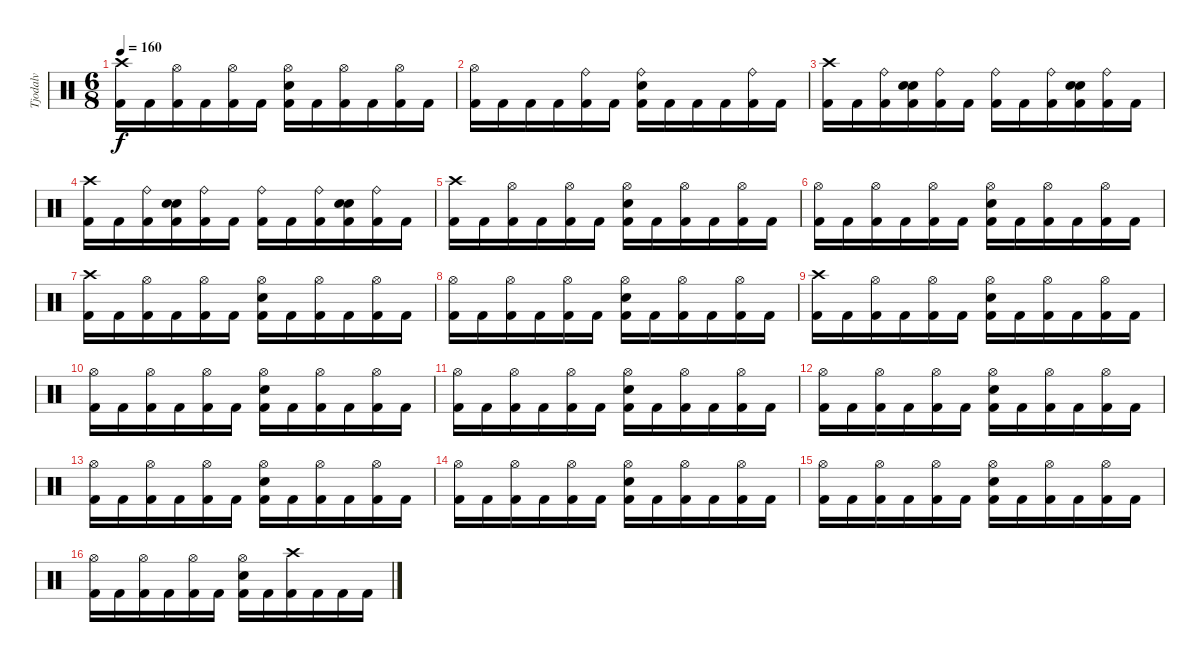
\track ("Tjodalv" "Tjodalv") {instrument percussion}
\staff {score}
\articulation defaults
\ts (6 8)
\tempo 160
\clef neutral
\ks c
("Crash high (hit)" "Kick (hit) 2").16{dy f} "Kick (hit) 2".16 ("Hi-Hat (open)" "Kick (hit) 2").16 "Kick (hit) 2".16 ("Hi-Hat (open)" "Kick (hit) 2").16 "Kick (hit) 2".16 ("Hi-Hat (open)" "Snare (hit) 2" "Kick (hit) 2").16 "Kick (hit) 2".16 ("Hi-Hat (open)" "Kick (hit) 2").16 "Kick (hit) 2".16 ("Hi-Hat (open)" "Kick (hit) 2").16 "Kick (hit) 2".16 |
("Hi-Hat (open)" "Kick (hit) 2").16 "Kick (hit) 2".16 "Kick (hit) 2".16 "Kick (hit) 2".16 ("Ride (bell)" "Kick (hit) 2").16 "Kick (hit) 2".16 ("Ride (bell)" "Snare (hit) 2" "Kick (hit) 2").16 "Kick (hit) 2".16 "Kick (hit) 2".16 "Kick (hit) 2".16 ("Ride (bell)" "Kick (hit) 2").16 "Kick (hit) 2".16 |
("Crash high (hit)" "Kick (hit) 2").16 "Kick (hit) 2".16 ("Ride (bell)" "Kick (hit) 2").16 ("Snare (hit) 2" "Snare (hit) 2" "Kick (hit) 2").16 ("Ride (bell)" "Kick (hit) 2").16 "Kick (hit) 2".16 ("Ride (bell)" "Kick (hit) 2").16 "Kick (hit) 2".16 ("Ride (bell)" "Kick (hit) 2").16 ("Snare (hit) 2" "Snare (hit) 2" "Kick (hit) 2").16 ("Ride (bell)" "Kick (hit) 2").16 "Kick (hit) 2".16 |
("Crash high (hit)" "Kick (hit) 2").16 "Kick (hit) 2".16 ("Ride (bell)" "Kick (hit) 2").16 ("Snare (hit) 2" "Snare (hit) 2" "Kick (hit) 2").16 ("Ride (bell)" "Kick (hit) 2").16 "Kick (hit) 2".16 ("Ride (bell)" "Kick (hit) 2").16 "Kick (hit) 2".16 ("Ride (bell)" "Kick (hit) 2").16 ("Snare (hit) 2" "Snare (hit) 2" "Kick (hit) 2").16 ("Ride (bell)" "Kick (hit) 2").16 "Kick (hit) 2".16 |
("Crash high (hit)" "Kick (hit) 2").16 "Kick (hit) 2".16 ("Hi-Hat (open)" "Kick (hit) 2").16 "Kick (hit) 2".16 ("Hi-Hat (open)" "Kick (hit) 2").16 "Kick (hit) 2".16 ("Hi-Hat (open)" "Snare (hit) 2" "Kick (hit) 2").16 "Kick (hit) 2".16 ("Hi-Hat (open)" "Kick (hit) 2").16 "Kick (hit) 2".16 ("Hi-Hat (open)" "Kick (hit) 2").16 "Kick (hit) 2".16 |
("Hi-Hat (open)" "Kick (hit) 2").16 "Kick (hit) 2".16 ("Hi-Hat (open)" "Kick (hit) 2").16 "Kick (hit) 2".16 ("Hi-Hat (open)" "Kick (hit) 2").16 "Kick (hit) 2".16 ("Hi-Hat (open)" "Snare (hit) 2" "Kick (hit) 2").16 "Kick (hit) 2".16 ("Hi-Hat (open)" "Kick (hit) 2").16 "Kick (hit) 2".16 ("Hi-Hat (open)" "Kick (hit) 2").16 "Kick (hit) 2".16 |
("Crash high (hit)" "Kick (hit) 2").16 "Kick (hit) 2".16 ("Hi-Hat (open)" "Kick (hit) 2").16 "Kick (hit) 2".16 ("Hi-Hat (open)" "Kick (hit) 2").16 "Kick (hit) 2".16 ("Hi-Hat (open)" "Snare (hit) 2" "Kick (hit) 2").16 "Kick (hit) 2".16 ("Hi-Hat (open)" "Kick (hit) 2").16 "Kick (hit) 2".16 ("Hi-Hat (open)" "Kick (hit) 2").16 "Kick (hit) 2".16 |
("Hi-Hat (open)" "Kick (hit) 2").16 "Kick (hit) 2".16 ("Hi-Hat (open)" "Kick (hit) 2").16 "Kick (hit) 2".16 ("Hi-Hat (open)" "Kick (hit) 2").16 "Kick (hit) 2".16 ("Hi-Hat (open)" "Snare (hit) 2" "Kick (hit) 2").16 "Kick (hit) 2".16 ("Hi-Hat (open)" "Kick (hit) 2").16 "Kick (hit) 2".16 ("Hi-Hat (open)" "Kick (hit) 2").16 "Kick (hit) 2".16 |
("Crash high (hit)" "Kick (hit) 2").16 "Kick (hit) 2".16 ("Hi-Hat (open)" "Kick (hit) 2").16 "Kick (hit) 2".16 ("Hi-Hat (open)" "Kick (hit) 2").16 "Kick (hit) 2".16 ("Hi-Hat (open)" "Snare (hit) 2" "Kick (hit) 2").16 "Kick (hit) 2".16 ("Hi-Hat (open)" "Kick (hit) 2").16 "Kick (hit) 2".16 ("Hi-Hat (open)" "Kick (hit) 2").16 "Kick (hit) 2".16 |
("Hi-Hat (open)" "Kick (hit) 2").16 "Kick (hit) 2".16 ("Hi-Hat (open)" "Kick (hit) 2").16 "Kick (hit) 2".16 ("Hi-Hat (open)" "Kick (hit) 2").16 "Kick (hit) 2".16 ("Hi-Hat (open)" "Snare (hit) 2" "Kick (hit) 2").16 "Kick (hit) 2".16 ("Hi-Hat (open)" "Kick (hit) 2").16 "Kick (hit) 2".16 ("Hi-Hat (open)" "Kick (hit) 2").16 "Kick (hit) 2".16 |
("Hi-Hat (open)" "Kick (hit) 2").16 "Kick (hit) 2".16 ("Hi-Hat (open)" "Kick (hit) 2").16 "Kick (hit) 2".16 ("Hi-Hat (open)" "Kick (hit) 2").16 "Kick (hit) 2".16 ("Hi-Hat (open)" "Snare (hit) 2" "Kick (hit) 2").16 "Kick (hit) 2".16 ("Hi-Hat (open)" "Kick (hit) 2").16 "Kick (hit) 2".16 ("Hi-Hat (open)" "Kick (hit) 2").16 "Kick (hit) 2".16 |
("Hi-Hat (open)" "Kick (hit) 2").16 "Kick (hit) 2".16 ("Hi-Hat (open)" "Kick (hit) 2").16 "Kick (hit) 2".16 ("Hi-Hat (open)" "Kick (hit) 2").16 "Kick (hit) 2".16 ("Hi-Hat (open)" "Snare (hit) 2" "Kick (hit) 2").16 "Kick (hit) 2".16 ("Hi-Hat (open)" "Kick (hit) 2").16 "Kick (hit) 2".16 ("Hi-Hat (open)" "Kick (hit) 2").16 "Kick (hit) 2".16 |
("Hi-Hat (open)" "Kick (hit) 2").16 "Kick (hit) 2".16 ("Hi-Hat (open)" "Kick (hit) 2").16 "Kick (hit) 2".16 ("Hi-Hat (open)" "Kick (hit) 2").16 "Kick (hit) 2".16 ("Hi-Hat (open)" "Snare (hit) 2" "Kick (hit) 2").16 "Kick (hit) 2".16 ("Hi-Hat (open)" "Kick (hit) 2").16 "Kick (hit) 2".16 ("Hi-Hat (open)" "Kick (hit) 2").16 "Kick (hit) 2".16 |
("Hi-Hat (open)" "Kick (hit) 2").16 "Kick (hit) 2".16 ("Hi-Hat (open)" "Kick (hit) 2").16 "Kick (hit) 2".16 ("Hi-Hat (open)" "Kick (hit) 2").16 "Kick (hit) 2".16 ("Hi-Hat (open)" "Snare (hit) 2" "Kick (hit) 2").16 "Kick (hit) 2".16 ("Hi-Hat (open)" "Kick (hit) 2").16 "Kick (hit) 2".16 ("Hi-Hat (open)" "Kick (hit) 2").16 "Kick (hit) 2".16 |
("Hi-Hat (open)" "Kick (hit) 2").16 "Kick (hit) 2".16 ("Hi-Hat (open)" "Kick (hit) 2").16 "Kick (hit) 2".16 ("Hi-Hat (open)" "Kick (hit) 2").16 "Kick (hit) 2".16 ("Hi-Hat (open)" "Snare (hit) 2" "Kick (hit) 2").16 "Kick (hit) 2".16 ("Hi-Hat (open)" "Kick (hit) 2").16 "Kick (hit) 2".16 ("Hi-Hat (open)" "Kick (hit) 2").16 "Kick (hit) 2".16 |
("Hi-Hat (open)" "Kick (hit) 2").16 "Kick (hit) 2".16 ("Hi-Hat (open)" "Kick (hit) 2").16 "Kick (hit) 2".16 ("Hi-Hat (open)" "Kick (hit) 2").16 "Kick (hit) 2".16 ("Hi-Hat (open)" "Snare (hit) 2" "Kick (hit) 2").16 "Kick (hit) 2".16 ("Crash high (hit)" "Kick (hit) 2").16 "Kick (hit) 2".16 "Kick (hit) 2".16 "Kick (hit) 2".16
